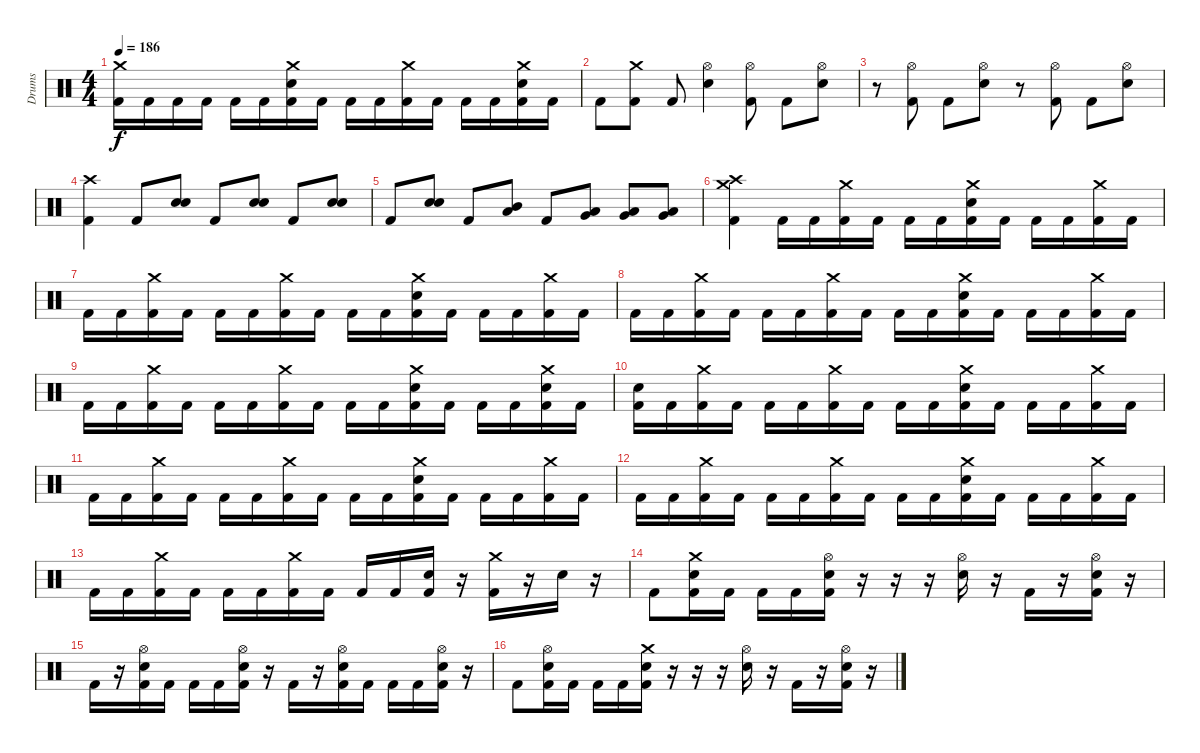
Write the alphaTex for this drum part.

\track ("Drums" "Drums") {instrument percussion bank 177}
\staff {score}
\articulation defaults
\ts (4 4)
\tempo 186
\clef neutral
\ks c
("Crash medium (hit)" "Kick (hit) 2").16{dy f} "Kick (hit) 2".16 "Kick (hit) 2".16 "Kick (hit) 2".16 "Kick (hit) 2".16 "Kick (hit) 2".16 ("Crash medium (hit)" "Snare (hit) 2" "Kick (hit) 2").16 "Kick (hit) 2".16 "Kick (hit) 2".16 "Kick (hit) 2".16 ("Crash medium (hit)" "Kick (hit) 2").16 "Kick (hit) 2".16 "Kick (hit) 2".16 "Kick (hit) 2".16 ("Crash medium (hit)" "Snare (hit) 2" "Kick (hit) 2").16 "Kick (hit) 2".16 |
"Kick (hit) 2".8 ("Crash medium (hit)" "Kick (hit) 2").8 "Kick (hit) 2".8 ("Hi-Hat (open)" "Snare (hit) 2").4 ("Hi-Hat (open)" "Kick (hit) 2").8 "Kick (hit) 2".8 ("Hi-Hat (open)" "Snare (hit) 2").8 |
r.8 ("Hi-Hat (open)" "Kick (hit) 2").8 "Kick (hit) 2".8 ("Hi-Hat (open)" "Snare (hit) 2").8 r.8 ("Hi-Hat (open)" "Kick (hit) 2").8 "Kick (hit) 2".8 ("Hi-Hat (open)" "Snare (hit) 2").8 |
("Crash high (hit)" "Kick (hit) 2").4 "Kick (hit) 2".8 ("Snare (hit) 2" "Snare (hit) 2").8 "Kick (hit) 2".8 ("Snare (hit) 2" "Snare (hit) 2").8 "Kick (hit) 2".8 ("Snare (hit) 2" "Snare (hit) 2").8 |
"Kick (hit) 2".8 ("Snare (hit) 2" "Snare (hit) 2").8 "Kick (hit) 2".8 ("Mid Tom (hit)" "Low Tom (hit)").8 "Kick (hit) 2".8 ("Low Tom (hit)" "Very Low Tom (hit)").8 ("Low Tom (hit)" "Very Low Tom (hit)").8 ("Low Tom (hit)" "Very Low Tom (hit)").8 |
("Crash high (hit)" "Crash medium (hit)" "Kick (hit) 2").4 "Kick (hit) 2".16 "Kick (hit) 2".16 ("Crash medium (hit)" "Kick (hit) 2").16 "Kick (hit) 2".16 "Kick (hit) 2".16 "Kick (hit) 2".16 ("Crash medium (hit)" "Snare (hit) 2" "Kick (hit) 2").16 "Kick (hit) 2".16 "Kick (hit) 2".16 "Kick (hit) 2".16 ("Crash medium (hit)" "Kick (hit) 2").16 "Kick (hit) 2".16 |
"Kick (hit) 2".16 "Kick (hit) 2".16 ("Crash medium (hit)" "Kick (hit) 2").16 "Kick (hit) 2".16 "Kick (hit) 2".16 "Kick (hit) 2".16 ("Crash medium (hit)" "Kick (hit) 2").16 "Kick (hit) 2".16 "Kick (hit) 2".16 "Kick (hit) 2".16 ("Crash medium (hit)" "Snare (hit) 2" "Kick (hit) 2").16 "Kick (hit) 2".16 "Kick (hit) 2".16 "Kick (hit) 2".16 ("Crash medium (hit)" "Kick (hit) 2").16 "Kick (hit) 2".16 |
"Kick (hit) 2".16 "Kick (hit) 2".16 ("Crash medium (hit)" "Kick (hit) 2").16 "Kick (hit) 2".16 "Kick (hit) 2".16 "Kick (hit) 2".16 ("Crash medium (hit)" "Kick (hit) 2").16 "Kick (hit) 2".16 "Kick (hit) 2".16 "Kick (hit) 2".16 ("Crash medium (hit)" "Snare (hit) 2" "Kick (hit) 2").16 "Kick (hit) 2".16 "Kick (hit) 2".16 "Kick (hit) 2".16 ("Crash medium (hit)" "Kick (hit) 2").16 "Kick (hit) 2".16 |
"Kick (hit) 2".16 "Kick (hit) 2".16 ("Crash medium (hit)" "Kick (hit) 2").16 "Kick (hit) 2".16 "Kick (hit) 2".16 "Kick (hit) 2".16 ("Crash medium (hit)" "Kick (hit) 2").16 "Kick (hit) 2".16 "Kick (hit) 2".16 "Kick (hit) 2".16 ("Crash medium (hit)" "Snare (hit) 2" "Kick (hit) 2").16 "Kick (hit) 2".16 "Kick (hit) 2".16 "Kick (hit) 2".16 ("Crash medium (hit)" "Snare (hit) 2" "Kick (hit) 2").16 "Kick (hit) 2".16 |
("Snare (hit) 2" "Kick (hit) 2").16 "Kick (hit) 2".16 ("Crash medium (hit)" "Kick (hit) 2").16 "Kick (hit) 2".16 "Kick (hit) 2".16 "Kick (hit) 2".16 ("Crash medium (hit)" "Kick (hit) 2").16 "Kick (hit) 2".16 "Kick (hit) 2".16 "Kick (hit) 2".16 ("Crash medium (hit)" "Snare (hit) 2" "Kick (hit) 2").16 "Kick (hit) 2".16 "Kick (hit) 2".16 "Kick (hit) 2".16 ("Crash medium (hit)" "Kick (hit) 2").16 "Kick (hit) 2".16 |
"Kick (hit) 2".16 "Kick (hit) 2".16 ("Crash medium (hit)" "Kick (hit) 2").16 "Kick (hit) 2".16 "Kick (hit) 2".16 "Kick (hit) 2".16 ("Crash medium (hit)" "Kick (hit) 2").16 "Kick (hit) 2".16 "Kick (hit) 2".16 "Kick (hit) 2".16 ("Crash medium (hit)" "Snare (hit) 2" "Kick (hit) 2").16 "Kick (hit) 2".16 "Kick (hit) 2".16 "Kick (hit) 2".16 ("Crash medium (hit)" "Kick (hit) 2").16 "Kick (hit) 2".16 |
"Kick (hit) 2".16 "Kick (hit) 2".16 ("Crash medium (hit)" "Kick (hit) 2").16 "Kick (hit) 2".16 "Kick (hit) 2".16 "Kick (hit) 2".16 ("Crash medium (hit)" "Kick (hit) 2").16 "Kick (hit) 2".16 "Kick (hit) 2".16 "Kick (hit) 2".16 ("Crash medium (hit)" "Snare (hit) 2" "Kick (hit) 2").16 "Kick (hit) 2".16 "Kick (hit) 2".16 "Kick (hit) 2".16 ("Crash medium (hit)" "Kick (hit) 2").16 "Kick (hit) 2".16 |
"Kick (hit) 2".16 "Kick (hit) 2".16 ("Crash medium (hit)" "Kick (hit) 2").16 "Kick (hit) 2".16 "Kick (hit) 2".16 "Kick (hit) 2".16 ("Crash medium (hit)" "Kick (hit) 2").16 "Kick (hit) 2".16 "Kick (hit) 2".16 "Kick (hit) 2".16 ("Snare (hit) 2" "Kick (hit) 2").16 r.16 ("Crash medium (hit)" "Kick (hit) 2").16 r.16 "Snare (hit) 2".16 r.16 |
"Kick (hit) 2".8 ("Crash medium (hit)" "Snare (hit) 2" "Kick (hit) 2").16 "Kick (hit) 2".16 "Kick (hit) 2".16 "Kick (hit) 2".16 ("Hi-Hat (open)" "Snare (hit) 2" "Kick (hit) 2").16 r.16 r.16 r.16 ("Hi-Hat (open)" "Snare (hit) 2").16 r.16 "Kick (hit) 2".16 r.16 ("Hi-Hat (open)" "Snare (hit) 2" "Kick (hit) 2").16 r.16 |
"Kick (hit) 2".16 r.16 ("Hi-Hat (open)" "Snare (hit) 2" "Kick (hit) 2").16 "Kick (hit) 2".16 "Kick (hit) 2".16 "Kick (hit) 2".16 ("Hi-Hat (open)" "Snare (hit) 2" "Kick (hit) 2").16 r.16 "Kick (hit) 2".16 r.16 ("Hi-Hat (open)" "Snare (hit) 2" "Kick (hit) 2").16 "Kick (hit) 2".16 "Kick (hit) 2".16 "Kick (hit) 2".16 ("Hi-Hat (open)" "Snare (hit) 2" "Kick (hit) 2").16 r.16 |
"Kick (hit) 2".8 ("Hi-Hat (open)" "Snare (hit) 2" "Kick (hit) 2").16 "Kick (hit) 2".16 "Kick (hit) 2".16 "Kick (hit) 2".16 ("Crash medium (hit)" "Snare (hit) 2" "Kick (hit) 2").16 r.16 r.16 r.16 ("Hi-Hat (open)" "Snare (hit) 2").16 r.16 "Kick (hit) 2".16 r.16 ("Hi-Hat (open)" "Snare (hit) 2" "Kick (hit) 2").16 r.16
